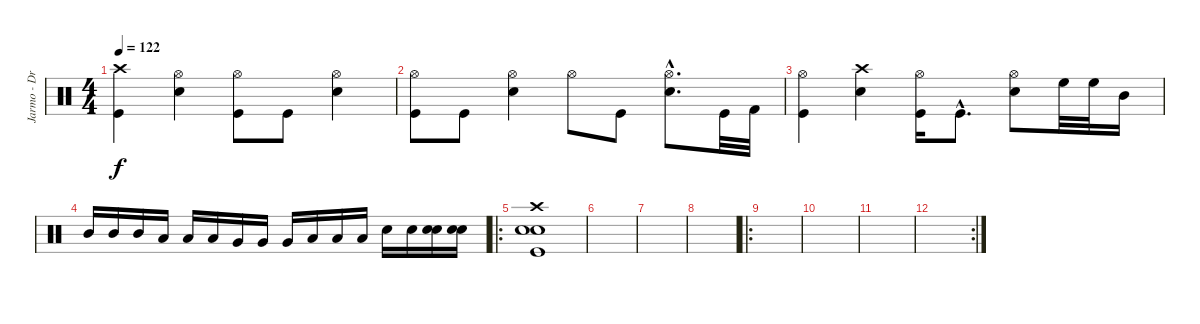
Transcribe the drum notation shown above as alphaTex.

\track ("Jarmo - Drums" "Jarmo - Dr") {instrument percussion}
\staff {score}
\articulation defaults
\ts (4 4)
\tempo 122
\clef neutral
\ks c
("Crash high (hit)" "Kick (hit)").4{dy f} ("Hi-Hat (open)" "Electric Snare (hit)").4 ("Hi-Hat (open)" "Kick (hit)").8 "Kick (hit)".8 ("Hi-Hat (open)" "Electric Snare (hit)").4 |
("Hi-Hat (open)" "Kick (hit)").8 "Kick (hit)".8 ("Hi-Hat (open)" "Electric Snare (hit)").4 "Hi-Hat (open)".8 "Kick (hit)".8 ("Hi-Hat (open)"{hac} "Electric Snare (hit)"{hac}).8{d} "Kick (hit)".32 "Kick (hit) 2".32 |
("Hi-Hat (open)" "Kick (hit)").4 ("Crash high (hit)" "Electric Snare (hit)").4 ("Hi-Hat (open)" "Kick (hit)").16 "Kick (hit)"{hac}.8{d} ("Hi-Hat (open)" "Electric Snare (hit)").8 "High Floor Tom (hit)".32 "High Floor Tom (hit)".32 "Mid Tom (hit)".16 |
"Mid Tom (hit)".16 "Mid Tom (hit)".16 "Mid Tom (hit)".16 "Low Tom (hit)".16 "Low Tom (hit)".16 "Low Tom (hit)".16 "Very Low Tom (hit)".16 "Very Low Tom (hit)".16 "Very Low Tom (hit)".16 "Low Floor Tom (hit)".16 "Low Floor Tom (hit)".16 "Low Floor Tom (hit)".16 "Snare (hit) 2".16 "Snare (hit) 2".16 ("Snare (hit) 2" "Electric Snare (hit)").16 ("Snare (hit) 2" "Electric Snare (hit)").16 |
\ro
("Crash high (hit)" "Kick (hit)" "Electric Snare (hit)" "Snare (hit) 2").1 |
|
|
|
\ro
|
|
|
\rc 2
